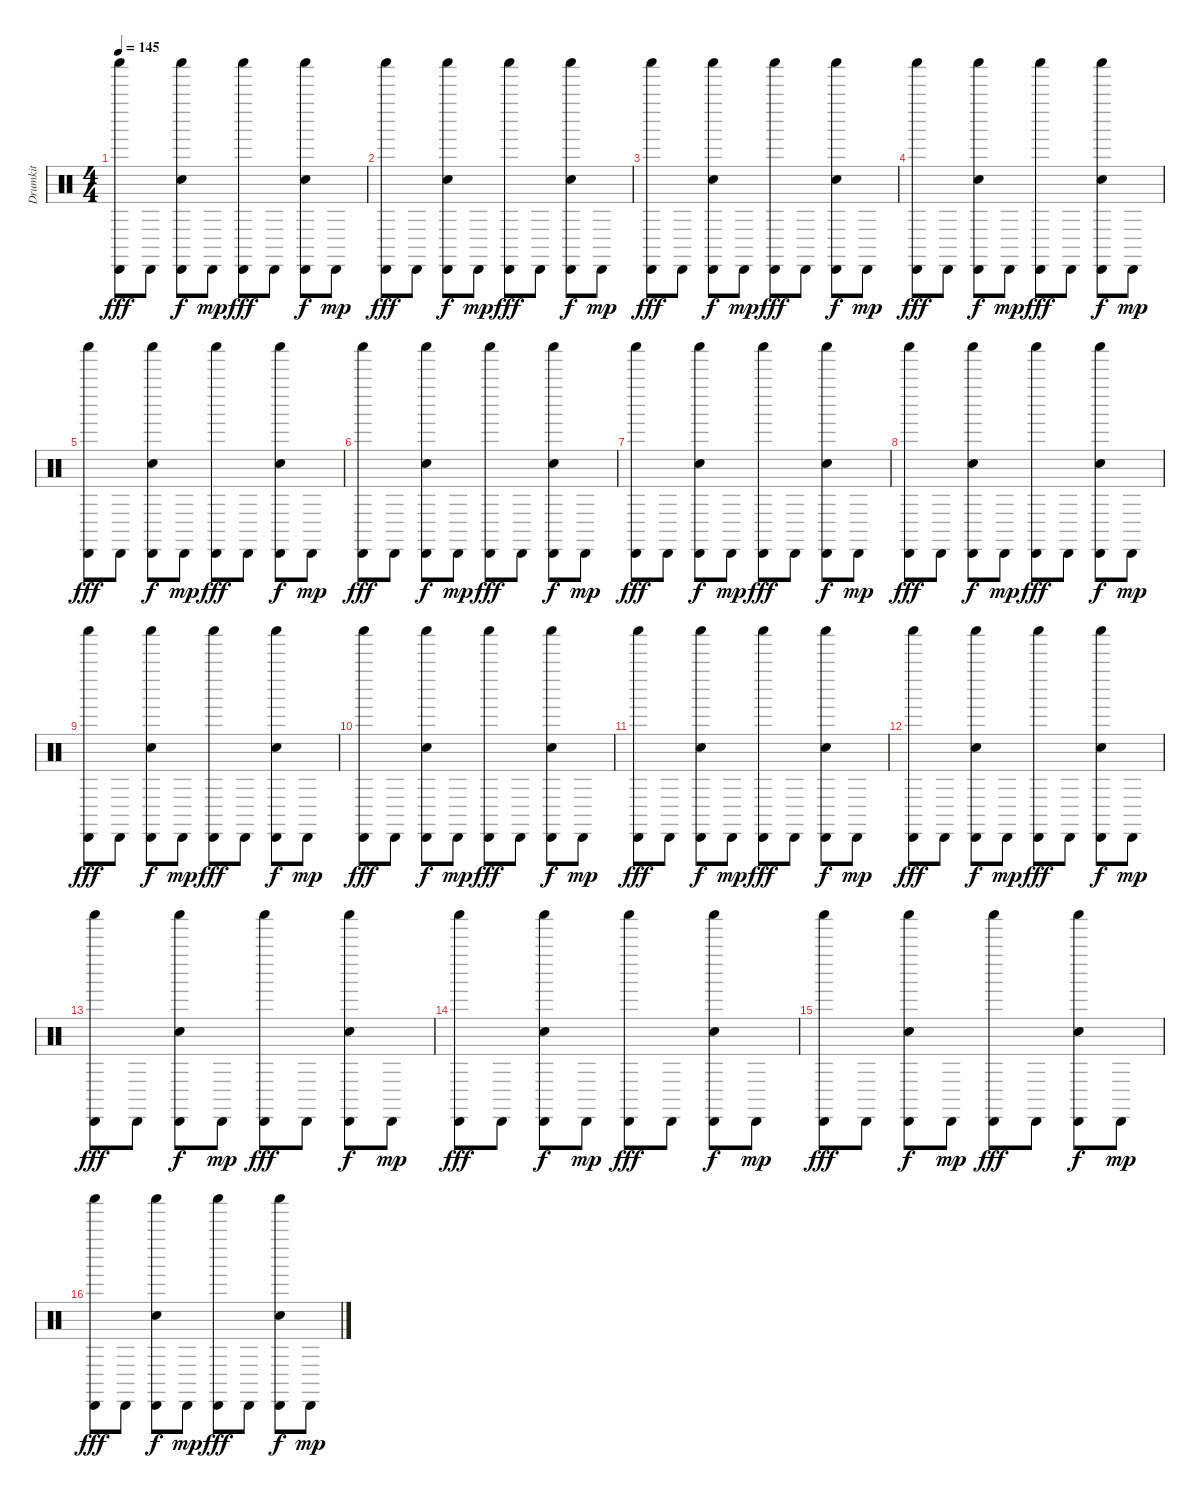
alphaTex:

\track ("Drumkit" "Drumkit") {instrument percussion}
\staff {score}
\articulation defaults
\ts (4 4)
\tempo 145
\clef neutral
\ks c
("Shaker (hit)" "Cabasa (hit)").8{dy fff} "Cabasa (hit)".8 ("Shaker (hit)" "Snare (hit) 2" "Cabasa (hit)").8{dy f} "Cabasa (hit)".8{dy mp} ("Shaker (hit)" "Cabasa (hit)").8{dy fff} "Cabasa (hit)".8 ("Shaker (hit)" "Snare (hit) 2" "Cabasa (hit)").8{dy f} "Cabasa (hit)".8{dy mp} |
("Shaker (hit)" "Cabasa (hit)").8{dy fff} "Cabasa (hit)".8 ("Shaker (hit)" "Snare (hit) 2" "Cabasa (hit)").8{dy f} "Cabasa (hit)".8{dy mp} ("Shaker (hit)" "Cabasa (hit)").8{dy fff} "Cabasa (hit)".8 ("Shaker (hit)" "Snare (hit) 2" "Cabasa (hit)").8{dy f} "Cabasa (hit)".8{dy mp} |
("Shaker (hit)" "Cabasa (hit)").8{dy fff} "Cabasa (hit)".8 ("Shaker (hit)" "Snare (hit) 2" "Cabasa (hit)").8{dy f} "Cabasa (hit)".8{dy mp} ("Shaker (hit)" "Cabasa (hit)").8{dy fff} "Cabasa (hit)".8 ("Shaker (hit)" "Snare (hit) 2" "Cabasa (hit)").8{dy f} "Cabasa (hit)".8{dy mp} |
("Shaker (hit)" "Cabasa (hit)").8{dy fff} "Cabasa (hit)".8 ("Shaker (hit)" "Snare (hit) 2" "Cabasa (hit)").8{dy f} "Cabasa (hit)".8{dy mp} ("Shaker (hit)" "Cabasa (hit)").8{dy fff} "Cabasa (hit)".8 ("Shaker (hit)" "Snare (hit) 2" "Cabasa (hit)").8{dy f} "Cabasa (hit)".8{dy mp} |
("Shaker (hit)" "Cabasa (hit)").8{dy fff} "Cabasa (hit)".8 ("Shaker (hit)" "Snare (hit) 2" "Cabasa (hit)").8{dy f} "Cabasa (hit)".8{dy mp} ("Shaker (hit)" "Cabasa (hit)").8{dy fff} "Cabasa (hit)".8 ("Shaker (hit)" "Snare (hit) 2" "Cabasa (hit)").8{dy f} "Cabasa (hit)".8{dy mp} |
("Shaker (hit)" "Cabasa (hit)").8{dy fff} "Cabasa (hit)".8 ("Shaker (hit)" "Snare (hit) 2" "Cabasa (hit)").8{dy f} "Cabasa (hit)".8{dy mp} ("Shaker (hit)" "Cabasa (hit)").8{dy fff} "Cabasa (hit)".8 ("Shaker (hit)" "Snare (hit) 2" "Cabasa (hit)").8{dy f} "Cabasa (hit)".8{dy mp} |
("Shaker (hit)" "Cabasa (hit)").8{dy fff} "Cabasa (hit)".8 ("Shaker (hit)" "Snare (hit) 2" "Cabasa (hit)").8{dy f} "Cabasa (hit)".8{dy mp} ("Shaker (hit)" "Cabasa (hit)").8{dy fff} "Cabasa (hit)".8 ("Shaker (hit)" "Snare (hit) 2" "Cabasa (hit)").8{dy f} "Cabasa (hit)".8{dy mp} |
("Shaker (hit)" "Cabasa (hit)").8{dy fff} "Cabasa (hit)".8 ("Shaker (hit)" "Snare (hit) 2" "Cabasa (hit)").8{dy f} "Cabasa (hit)".8{dy mp} ("Shaker (hit)" "Cabasa (hit)").8{dy fff} "Cabasa (hit)".8 ("Shaker (hit)" "Snare (hit) 2" "Cabasa (hit)").8{dy f} "Cabasa (hit)".8{dy mp} |
("Shaker (hit)" "Cabasa (hit)").8{dy fff} "Cabasa (hit)".8 ("Shaker (hit)" "Snare (hit) 2" "Cabasa (hit)").8{dy f} "Cabasa (hit)".8{dy mp} ("Shaker (hit)" "Cabasa (hit)").8{dy fff} "Cabasa (hit)".8 ("Shaker (hit)" "Snare (hit) 2" "Cabasa (hit)").8{dy f} "Cabasa (hit)".8{dy mp} |
("Shaker (hit)" "Cabasa (hit)").8{dy fff} "Cabasa (hit)".8 ("Shaker (hit)" "Snare (hit) 2" "Cabasa (hit)").8{dy f} "Cabasa (hit)".8{dy mp} ("Shaker (hit)" "Cabasa (hit)").8{dy fff} "Cabasa (hit)".8 ("Shaker (hit)" "Snare (hit) 2" "Cabasa (hit)").8{dy f} "Cabasa (hit)".8{dy mp} |
("Shaker (hit)" "Cabasa (hit)").8{dy fff} "Cabasa (hit)".8 ("Shaker (hit)" "Snare (hit) 2" "Cabasa (hit)").8{dy f} "Cabasa (hit)".8{dy mp} ("Shaker (hit)" "Cabasa (hit)").8{dy fff} "Cabasa (hit)".8 ("Shaker (hit)" "Snare (hit) 2" "Cabasa (hit)").8{dy f} "Cabasa (hit)".8{dy mp} |
("Shaker (hit)" "Cabasa (hit)").8{dy fff} "Cabasa (hit)".8 ("Shaker (hit)" "Snare (hit) 2" "Cabasa (hit)").8{dy f} "Cabasa (hit)".8{dy mp} ("Shaker (hit)" "Cabasa (hit)").8{dy fff} "Cabasa (hit)".8 ("Shaker (hit)" "Snare (hit) 2" "Cabasa (hit)").8{dy f} "Cabasa (hit)".8{dy mp} |
("Shaker (hit)" "Cabasa (hit)").8{dy fff} "Cabasa (hit)".8 ("Shaker (hit)" "Snare (hit) 2" "Cabasa (hit)").8{dy f} "Cabasa (hit)".8{dy mp} ("Shaker (hit)" "Cabasa (hit)").8{dy fff} "Cabasa (hit)".8 ("Shaker (hit)" "Snare (hit) 2" "Cabasa (hit)").8{dy f} "Cabasa (hit)".8{dy mp} |
("Shaker (hit)" "Cabasa (hit)").8{dy fff} "Cabasa (hit)".8 ("Shaker (hit)" "Snare (hit) 2" "Cabasa (hit)").8{dy f} "Cabasa (hit)".8{dy mp} ("Shaker (hit)" "Cabasa (hit)").8{dy fff} "Cabasa (hit)".8 ("Shaker (hit)" "Snare (hit) 2" "Cabasa (hit)").8{dy f} "Cabasa (hit)".8{dy mp} |
("Shaker (hit)" "Cabasa (hit)").8{dy fff} "Cabasa (hit)".8 ("Shaker (hit)" "Snare (hit) 2" "Cabasa (hit)").8{dy f} "Cabasa (hit)".8{dy mp} ("Shaker (hit)" "Cabasa (hit)").8{dy fff} "Cabasa (hit)".8 ("Shaker (hit)" "Snare (hit) 2" "Cabasa (hit)").8{dy f} "Cabasa (hit)".8{dy mp} |
("Shaker (hit)" "Cabasa (hit)").8{dy fff} "Cabasa (hit)".8 ("Shaker (hit)" "Snare (hit) 2" "Cabasa (hit)").8{dy f} "Cabasa (hit)".8{dy mp} ("Shaker (hit)" "Cabasa (hit)").8{dy fff} "Cabasa (hit)".8 ("Shaker (hit)" "Snare (hit) 2" "Cabasa (hit)").8{dy f} "Cabasa (hit)".8{dy mp}
